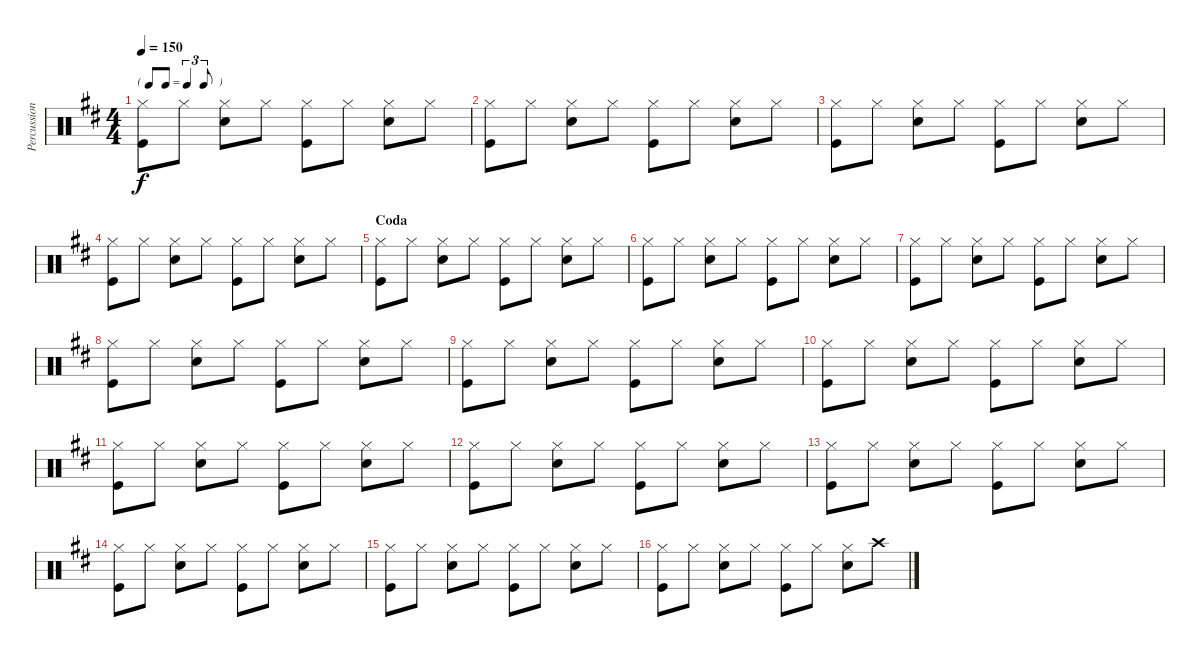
\track ("Percussion" "Percussion") {instrument percussion}
\staff {score}
\articulation defaults
\ts (4 4)
\tf triplet8th
\tempo 150
\clef neutral
\ks d
("Hi-Hat (closed)" "Kick (hit)").8{dy f} "Hi-Hat (closed)".8 ("Hi-Hat (closed)" "Snare (hit) 2").8 "Hi-Hat (closed)".8 ("Hi-Hat (closed)" "Kick (hit)").8 "Hi-Hat (closed)".8 ("Hi-Hat (closed)" "Snare (hit) 2").8 "Hi-Hat (closed)".8 |
("Hi-Hat (closed)" "Kick (hit)").8 "Hi-Hat (closed)".8 ("Hi-Hat (closed)" "Snare (hit) 2").8 "Hi-Hat (closed)".8 ("Hi-Hat (closed)" "Kick (hit)").8 "Hi-Hat (closed)".8 ("Hi-Hat (closed)" "Snare (hit) 2").8 "Hi-Hat (closed)".8 |
("Hi-Hat (closed)" "Kick (hit)").8 "Hi-Hat (closed)".8 ("Hi-Hat (closed)" "Snare (hit) 2").8 "Hi-Hat (closed)".8 ("Hi-Hat (closed)" "Kick (hit)").8 "Hi-Hat (closed)".8 ("Hi-Hat (closed)" "Snare (hit) 2").8 "Hi-Hat (closed)".8 |
("Hi-Hat (closed)" "Kick (hit)").8 "Hi-Hat (closed)".8 ("Hi-Hat (closed)" "Snare (hit) 2").8 "Hi-Hat (closed)".8 ("Hi-Hat (closed)" "Kick (hit)").8 "Hi-Hat (closed)".8 ("Hi-Hat (closed)" "Snare (hit) 2").8 "Hi-Hat (closed)".8 |
\section ("" "Coda")
("Hi-Hat (closed)" "Kick (hit)").8 "Hi-Hat (closed)".8 ("Hi-Hat (closed)" "Snare (hit) 2").8 "Hi-Hat (closed)".8 ("Hi-Hat (closed)" "Kick (hit)").8 "Hi-Hat (closed)".8 ("Hi-Hat (closed)" "Snare (hit) 2").8 "Hi-Hat (closed)".8 |
("Hi-Hat (closed)" "Kick (hit)").8 "Hi-Hat (closed)".8 ("Hi-Hat (closed)" "Snare (hit) 2").8 "Hi-Hat (closed)".8 ("Hi-Hat (closed)" "Kick (hit)").8 "Hi-Hat (closed)".8 ("Hi-Hat (closed)" "Snare (hit) 2").8 "Hi-Hat (closed)".8 |
("Hi-Hat (closed)" "Kick (hit)").8 "Hi-Hat (closed)".8 ("Hi-Hat (closed)" "Snare (hit) 2").8 "Hi-Hat (closed)".8 ("Hi-Hat (closed)" "Kick (hit)").8 "Hi-Hat (closed)".8 ("Hi-Hat (closed)" "Snare (hit) 2").8 "Hi-Hat (closed)".8 |
("Hi-Hat (closed)" "Kick (hit)").8 "Hi-Hat (closed)".8 ("Hi-Hat (closed)" "Snare (hit) 2").8 "Hi-Hat (closed)".8 ("Hi-Hat (closed)" "Kick (hit)").8 "Hi-Hat (closed)".8 ("Hi-Hat (closed)" "Snare (hit) 2").8 "Hi-Hat (closed)".8 |
("Hi-Hat (closed)" "Kick (hit)").8 "Hi-Hat (closed)".8 ("Hi-Hat (closed)" "Snare (hit) 2").8 "Hi-Hat (closed)".8 ("Hi-Hat (closed)" "Kick (hit)").8 "Hi-Hat (closed)".8 ("Hi-Hat (closed)" "Snare (hit) 2").8 "Hi-Hat (closed)".8 |
("Hi-Hat (closed)" "Kick (hit)").8 "Hi-Hat (closed)".8 ("Hi-Hat (closed)" "Snare (hit) 2").8 "Hi-Hat (closed)".8 ("Hi-Hat (closed)" "Kick (hit)").8 "Hi-Hat (closed)".8 ("Hi-Hat (closed)" "Snare (hit) 2").8 "Hi-Hat (closed)".8 |
("Hi-Hat (closed)" "Kick (hit)").8 "Hi-Hat (closed)".8 ("Hi-Hat (closed)" "Snare (hit) 2").8 "Hi-Hat (closed)".8 ("Hi-Hat (closed)" "Kick (hit)").8 "Hi-Hat (closed)".8 ("Hi-Hat (closed)" "Snare (hit) 2").8 "Hi-Hat (closed)".8 |
("Hi-Hat (closed)" "Kick (hit)").8 "Hi-Hat (closed)".8 ("Hi-Hat (closed)" "Snare (hit) 2").8 "Hi-Hat (closed)".8 ("Hi-Hat (closed)" "Kick (hit)").8 "Hi-Hat (closed)".8 ("Hi-Hat (closed)" "Snare (hit) 2").8 "Hi-Hat (closed)".8 |
("Hi-Hat (closed)" "Kick (hit)").8 "Hi-Hat (closed)".8 ("Hi-Hat (closed)" "Snare (hit) 2").8 "Hi-Hat (closed)".8 ("Hi-Hat (closed)" "Kick (hit)").8 "Hi-Hat (closed)".8 ("Hi-Hat (closed)" "Snare (hit) 2").8 "Hi-Hat (closed)".8 |
("Hi-Hat (closed)" "Kick (hit)").8 "Hi-Hat (closed)".8 ("Hi-Hat (closed)" "Snare (hit) 2").8 "Hi-Hat (closed)".8 ("Hi-Hat (closed)" "Kick (hit)").8 "Hi-Hat (closed)".8 ("Hi-Hat (closed)" "Snare (hit) 2").8 "Hi-Hat (closed)".8 |
("Hi-Hat (closed)" "Kick (hit)").8 "Hi-Hat (closed)".8 ("Hi-Hat (closed)" "Snare (hit) 2").8 "Hi-Hat (closed)".8 ("Hi-Hat (closed)" "Kick (hit)").8 "Hi-Hat (closed)".8 ("Hi-Hat (closed)" "Snare (hit) 2").8 "Hi-Hat (closed)".8 |
("Hi-Hat (closed)" "Kick (hit)").8 "Hi-Hat (closed)".8 ("Hi-Hat (closed)" "Snare (hit) 2").8 "Hi-Hat (closed)".8 ("Hi-Hat (closed)" "Kick (hit)").8 "Hi-Hat (closed)".8 ("Hi-Hat (closed)" "Snare (hit) 2").8 "Crash high (hit)".8
